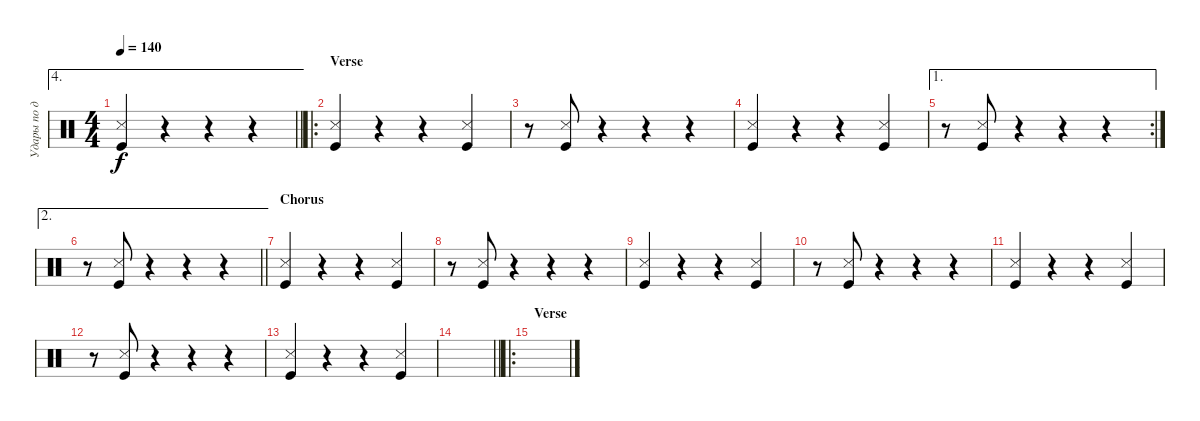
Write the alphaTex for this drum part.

\track ("Удары по деке" "Удары по д") {instrument percussion}
\staff {score}
\articulation defaults
\ae 4
\ts (4 4)
\tempo 140
\clef neutral
\barLineRight lightlight
\ks c
("Snare (side stick) 3" "Kick (hit)").4{dy f} r.4 r.4 r.4 |
\ro
\section ("" "Verse")
("Snare (side stick) 3" "Kick (hit)").4 r.4 r.4 ("Snare (side stick) 3" "Kick (hit)").4 |
r.8 ("Snare (side stick) 3" "Kick (hit)").8 r.4 r.4 r.4 |
("Snare (side stick) 3" "Kick (hit)").4 r.4 r.4 ("Snare (side stick) 3" "Kick (hit)").4 |
\ae 1
\rc 2
r.8 ("Snare (side stick) 3" "Kick (hit)").8 r.4 r.4 r.4 |
\ae 2
\barLineRight lightlight
r.8 ("Snare (side stick) 3" "Kick (hit)").8 r.4 r.4 r.4 |
\section ("" "Chorus")
("Snare (side stick) 3" "Kick (hit)").4 r.4 r.4 ("Snare (side stick) 3" "Kick (hit)").4 |
r.8 ("Snare (side stick) 3" "Kick (hit)").8 r.4 r.4 r.4 |
("Snare (side stick) 3" "Kick (hit)").4 r.4 r.4 ("Snare (side stick) 3" "Kick (hit)").4 |
r.8 ("Snare (side stick) 3" "Kick (hit)").8 r.4 r.4 r.4 |
("Snare (side stick) 3" "Kick (hit)").4 r.4 r.4 ("Snare (side stick) 3" "Kick (hit)").4 |
r.8 ("Snare (side stick) 3" "Kick (hit)").8 r.4 r.4 r.4 |
("Snare (side stick) 3" "Kick (hit)").4 r.4 r.4 ("Snare (side stick) 3" "Kick (hit)").4 |
\barLineRight lightlight
|
\ro
\section ("" "Verse")
